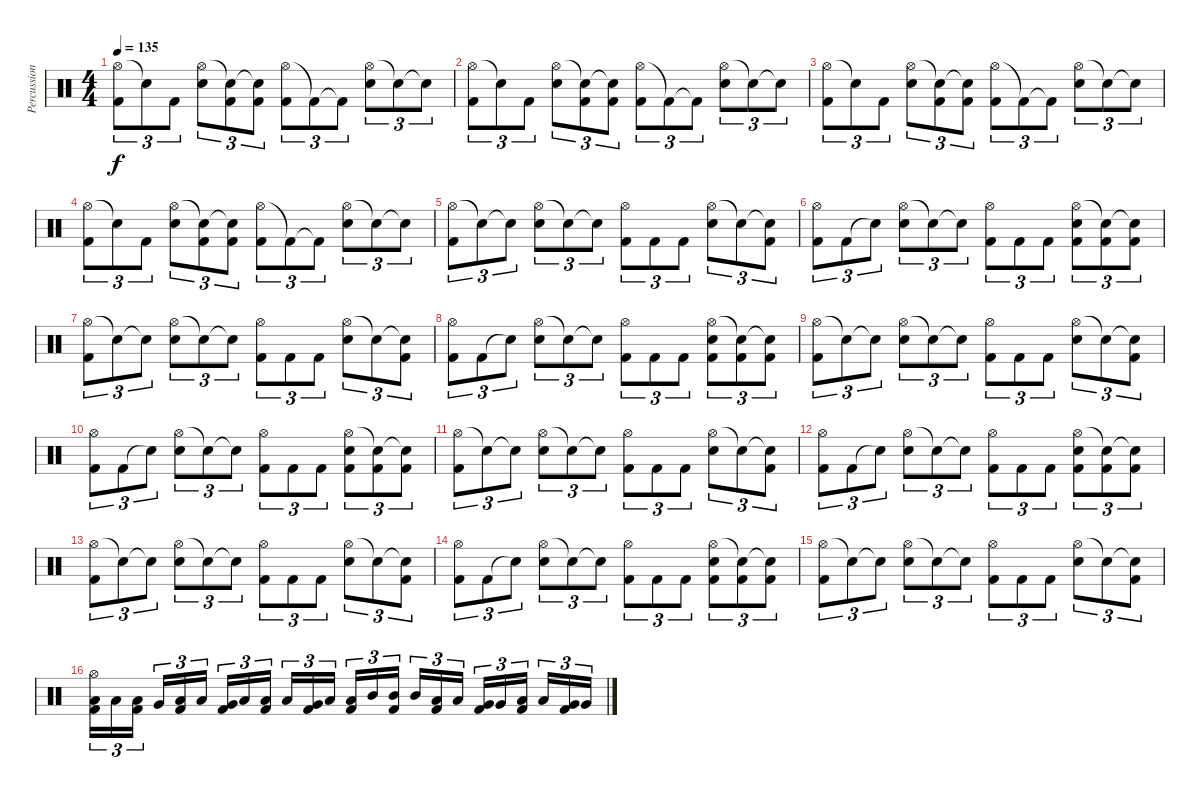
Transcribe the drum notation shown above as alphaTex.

\track ("Percussions" "Percussion") {instrument percussion}
\staff {score}
\articulation defaults
\ts (4 4)
\tempo 135
\clef neutral
\ks c
("Hi-Hat (open)" "Kick (hit) 2").8{tu (3 2) dy f} "Snare (hit)"{t}.8{tu (3 2)} "Kick (hit) 2".8{tu (3 2)} ("Hi-Hat (open)" "Snare (hit) 2").8{tu (3 2)} ("Snare (hit)"{t} "Kick (hit) 2").8{tu (3 2)} ("Snare (hit)"{t} "Kick (hit) 2").8{tu (3 2)} ("Hi-Hat (open)" "Kick (hit) 2").8{tu (3 2)} "Kick (hit) 2"{t}.8{tu (3 2)} "Kick (hit) 2"{t}.8{tu (3 2)} ("Hi-Hat (open)" "Snare (hit) 2").8{tu (3 2)} "Snare (hit)"{t}.8{tu (3 2)} "Snare (hit)"{t}.8{tu (3 2)} |
("Hi-Hat (open)" "Kick (hit) 2").8{tu (3 2)} "Snare (hit)"{t}.8{tu (3 2)} "Kick (hit) 2".8{tu (3 2)} ("Hi-Hat (open)" "Snare (hit) 2").8{tu (3 2)} ("Snare (hit)"{t} "Kick (hit) 2").8{tu (3 2)} ("Snare (hit)"{t} "Kick (hit) 2").8{tu (3 2)} ("Hi-Hat (open)" "Kick (hit) 2").8{tu (3 2)} "Kick (hit) 2"{t}.8{tu (3 2)} "Kick (hit) 2"{t}.8{tu (3 2)} ("Hi-Hat (open)" "Snare (hit) 2").8{tu (3 2)} "Snare (hit)"{t}.8{tu (3 2)} "Snare (hit)"{t}.8{tu (3 2)} |
("Hi-Hat (open)" "Kick (hit) 2").8{tu (3 2)} "Snare (hit)"{t}.8{tu (3 2)} "Kick (hit) 2".8{tu (3 2)} ("Hi-Hat (open)" "Snare (hit) 2").8{tu (3 2)} ("Snare (hit)"{t} "Kick (hit) 2").8{tu (3 2)} ("Snare (hit)"{t} "Kick (hit) 2").8{tu (3 2)} ("Hi-Hat (open)" "Kick (hit) 2").8{tu (3 2)} "Kick (hit) 2"{t}.8{tu (3 2)} "Kick (hit) 2"{t}.8{tu (3 2)} ("Hi-Hat (open)" "Snare (hit) 2").8{tu (3 2)} "Snare (hit)"{t}.8{tu (3 2)} "Snare (hit)"{t}.8{tu (3 2)} |
("Hi-Hat (open)" "Kick (hit) 2").8{tu (3 2)} "Snare (hit)"{t}.8{tu (3 2)} "Kick (hit) 2".8{tu (3 2)} ("Hi-Hat (open)" "Snare (hit) 2").8{tu (3 2)} ("Snare (hit)"{t} "Kick (hit) 2").8{tu (3 2)} ("Snare (hit)"{t} "Kick (hit) 2").8{tu (3 2)} ("Hi-Hat (open)" "Kick (hit) 2").8{tu (3 2)} "Kick (hit) 2"{t}.8{tu (3 2)} "Kick (hit) 2"{t}.8{tu (3 2)} ("Hi-Hat (open)" "Snare (hit) 2").8{tu (3 2)} "Snare (hit)"{t}.8{tu (3 2)} "Snare (hit)"{t}.8{tu (3 2)} |
("Hi-Hat (open)" "Kick (hit) 2").8{tu (3 2)} "Snare (hit)"{t}.8{tu (3 2)} "Snare (hit)"{t}.8{tu (3 2)} ("Hi-Hat (open)" "Snare (hit) 2").8{tu (3 2)} "Snare (hit)"{t}.8{tu (3 2)} "Snare (hit)"{t}.8{tu (3 2)} ("Hi-Hat (open)" "Kick (hit) 2").8{tu (3 2)} "Kick (hit) 2".8{tu (3 2)} "Kick (hit) 2".8{tu (3 2)} ("Hi-Hat (open)" "Snare (hit) 2").8{tu (3 2)} "Snare (hit)"{t}.8{tu (3 2)} ("Snare (hit)"{t} "Kick (hit) 2").8{tu (3 2)} |
("Hi-Hat (open)" "Kick (hit) 2").8{tu (3 2)} "Kick (hit) 2".8{tu (3 2)} "Snare (hit)"{t}.8{tu (3 2)} ("Hi-Hat (open)" "Snare (hit) 2").8{tu (3 2)} "Snare (hit)"{t}.8{tu (3 2)} "Snare (hit)"{t}.8{tu (3 2)} ("Hi-Hat (open)" "Kick (hit) 2").8{tu (3 2)} "Kick (hit) 2".8{tu (3 2)} "Kick (hit) 2".8{tu (3 2)} ("Hi-Hat (open)" "Snare (hit) 2" "Kick (hit) 2").8{tu (3 2)} ("Snare (hit)"{t} "Kick (hit) 2").8{tu (3 2)} ("Snare (hit)"{t} "Kick (hit) 2").8{tu (3 2)} |
("Hi-Hat (open)" "Kick (hit) 2").8{tu (3 2)} "Snare (hit)"{t}.8{tu (3 2)} "Snare (hit)"{t}.8{tu (3 2)} ("Hi-Hat (open)" "Snare (hit) 2").8{tu (3 2)} "Snare (hit)"{t}.8{tu (3 2)} "Snare (hit)"{t}.8{tu (3 2)} ("Hi-Hat (open)" "Kick (hit) 2").8{tu (3 2)} "Kick (hit) 2".8{tu (3 2)} "Kick (hit) 2".8{tu (3 2)} ("Hi-Hat (open)" "Snare (hit) 2").8{tu (3 2)} "Snare (hit)"{t}.8{tu (3 2)} ("Snare (hit)"{t} "Kick (hit) 2").8{tu (3 2)} |
("Hi-Hat (open)" "Kick (hit) 2").8{tu (3 2)} "Kick (hit) 2".8{tu (3 2)} "Snare (hit)"{t}.8{tu (3 2)} ("Hi-Hat (open)" "Snare (hit) 2").8{tu (3 2)} "Snare (hit)"{t}.8{tu (3 2)} "Snare (hit)"{t}.8{tu (3 2)} ("Hi-Hat (open)" "Kick (hit) 2").8{tu (3 2)} "Kick (hit) 2".8{tu (3 2)} "Kick (hit) 2".8{tu (3 2)} ("Hi-Hat (open)" "Snare (hit) 2" "Kick (hit) 2").8{tu (3 2)} ("Snare (hit)"{t} "Kick (hit) 2").8{tu (3 2)} ("Snare (hit)"{t} "Kick (hit) 2").8{tu (3 2)} |
("Hi-Hat (open)" "Kick (hit) 2").8{tu (3 2)} "Snare (hit)"{t}.8{tu (3 2)} "Snare (hit)"{t}.8{tu (3 2)} ("Hi-Hat (open)" "Snare (hit) 2").8{tu (3 2)} "Snare (hit)"{t}.8{tu (3 2)} "Snare (hit)"{t}.8{tu (3 2)} ("Hi-Hat (open)" "Kick (hit) 2").8{tu (3 2)} "Kick (hit) 2".8{tu (3 2)} "Kick (hit) 2".8{tu (3 2)} ("Hi-Hat (open)" "Snare (hit) 2").8{tu (3 2)} "Snare (hit)"{t}.8{tu (3 2)} ("Snare (hit)"{t} "Kick (hit) 2").8{tu (3 2)} |
("Hi-Hat (open)" "Kick (hit) 2").8{tu (3 2)} "Kick (hit) 2".8{tu (3 2)} "Snare (hit)"{t}.8{tu (3 2)} ("Hi-Hat (open)" "Snare (hit) 2").8{tu (3 2)} "Snare (hit)"{t}.8{tu (3 2)} "Snare (hit)"{t}.8{tu (3 2)} ("Hi-Hat (open)" "Kick (hit) 2").8{tu (3 2)} "Kick (hit) 2".8{tu (3 2)} "Kick (hit) 2".8{tu (3 2)} ("Hi-Hat (open)" "Snare (hit) 2" "Kick (hit) 2").8{tu (3 2)} ("Snare (hit)"{t} "Kick (hit) 2").8{tu (3 2)} ("Snare (hit)"{t} "Kick (hit) 2").8{tu (3 2)} |
("Hi-Hat (open)" "Kick (hit) 2").8{tu (3 2)} "Snare (hit)"{t}.8{tu (3 2)} "Snare (hit)"{t}.8{tu (3 2)} ("Hi-Hat (open)" "Snare (hit) 2").8{tu (3 2)} "Snare (hit)"{t}.8{tu (3 2)} "Snare (hit)"{t}.8{tu (3 2)} ("Hi-Hat (open)" "Kick (hit) 2").8{tu (3 2)} "Kick (hit) 2".8{tu (3 2)} "Kick (hit) 2".8{tu (3 2)} ("Hi-Hat (open)" "Snare (hit) 2").8{tu (3 2)} "Snare (hit)"{t}.8{tu (3 2)} ("Snare (hit)"{t} "Kick (hit) 2").8{tu (3 2)} |
("Hi-Hat (open)" "Kick (hit) 2").8{tu (3 2)} "Kick (hit) 2".8{tu (3 2)} "Snare (hit)"{t}.8{tu (3 2)} ("Hi-Hat (open)" "Snare (hit) 2").8{tu (3 2)} "Snare (hit)"{t}.8{tu (3 2)} "Snare (hit)"{t}.8{tu (3 2)} ("Hi-Hat (open)" "Kick (hit) 2").8{tu (3 2)} "Kick (hit) 2".8{tu (3 2)} "Kick (hit) 2".8{tu (3 2)} ("Hi-Hat (open)" "Snare (hit) 2" "Kick (hit) 2").8{tu (3 2)} ("Snare (hit)"{t} "Kick (hit) 2").8{tu (3 2)} ("Snare (hit)"{t} "Kick (hit) 2").8{tu (3 2)} |
("Hi-Hat (open)" "Kick (hit) 2").8{tu (3 2)} "Snare (hit)"{t}.8{tu (3 2)} "Snare (hit)"{t}.8{tu (3 2)} ("Hi-Hat (open)" "Snare (hit) 2").8{tu (3 2)} "Snare (hit)"{t}.8{tu (3 2)} "Snare (hit)"{t}.8{tu (3 2)} ("Hi-Hat (open)" "Kick (hit) 2").8{tu (3 2)} "Kick (hit) 2".8{tu (3 2)} "Kick (hit) 2".8{tu (3 2)} ("Hi-Hat (open)" "Snare (hit) 2").8{tu (3 2)} "Snare (hit)"{t}.8{tu (3 2)} ("Snare (hit)"{t} "Kick (hit) 2").8{tu (3 2)} |
("Hi-Hat (open)" "Kick (hit) 2").8{tu (3 2)} "Kick (hit) 2".8{tu (3 2)} "Snare (hit)"{t}.8{tu (3 2)} ("Hi-Hat (open)" "Snare (hit) 2").8{tu (3 2)} "Snare (hit)"{t}.8{tu (3 2)} "Snare (hit)"{t}.8{tu (3 2)} ("Hi-Hat (open)" "Kick (hit) 2").8{tu (3 2)} "Kick (hit) 2".8{tu (3 2)} "Kick (hit) 2".8{tu (3 2)} ("Hi-Hat (open)" "Snare (hit) 2" "Kick (hit) 2").8{tu (3 2)} ("Snare (hit)"{t} "Kick (hit) 2").8{tu (3 2)} ("Snare (hit)"{t} "Kick (hit) 2").8{tu (3 2)} |
("Hi-Hat (open)" "Kick (hit) 2").8{tu (3 2)} "Snare (hit)"{t}.8{tu (3 2)} "Snare (hit)"{t}.8{tu (3 2)} ("Hi-Hat (open)" "Snare (hit) 2").8{tu (3 2)} "Snare (hit)"{t}.8{tu (3 2)} "Snare (hit)"{t}.8{tu (3 2)} ("Hi-Hat (open)" "Kick (hit) 2").8{tu (3 2)} "Kick (hit) 2".8{tu (3 2)} "Kick (hit) 2".8{tu (3 2)} ("Hi-Hat (open)" "Snare (hit) 2").8{tu (3 2)} "Snare (hit)"{t}.8{tu (3 2)} ("Snare (hit)"{t} "Kick (hit) 2").8{tu (3 2)} |
("Kick (hit) 2" "Hi-Hat (open)" "Low Floor Tom (hit)").16{tu (3 2)} "Low Floor Tom (hit)".16{tu (3 2)} ("Kick (hit) 2" "Low Floor Tom (hit)").16{tu (3 2)} "Very Low Tom (hit)".16{tu (3 2)} ("Kick (hit) 2" "Low Floor Tom (hit)").16{tu (3 2)} "Low Floor Tom (hit)".16{tu (3 2)} ("Kick (hit) 2" "Very Low Tom (hit)").16{tu (3 2)} "Low Tom (hit)".16{tu (3 2)} ("Kick (hit) 2" "Low Tom (hit)").16{tu (3 2)} "Low Tom (hit)".16{tu (3 2)} ("Kick (hit) 2" "Very Low Tom (hit)").16{tu (3 2)} "Low Tom (hit)".16{tu (3 2)} ("Kick (hit) 2" "Low Tom (hit)").16{tu (3 2)} "Mid Tom (hit)".16{tu (3 2)} ("Kick (hit) 2" "Mid Tom (hit)").16{tu (3 2)} "Mid Tom (hit)".16{tu (3 2)} ("Kick (hit) 2" "Low Tom (hit)").16{tu (3 2)} "Low Tom (hit)".16{tu (3 2)} ("Kick (hit) 2" "Very Low Tom (hit)").16{tu (3 2)} "Very Low Tom (hit)".16{tu (3 2)} ("Kick (hit) 2" "Low Tom (hit)").16{tu (3 2)} "Low Tom (hit)".16{tu (3 2)} ("Kick (hit) 2" "Very Low Tom (hit)").16{tu (3 2)} "Very Low Tom (hit)".16{tu (3 2)}
